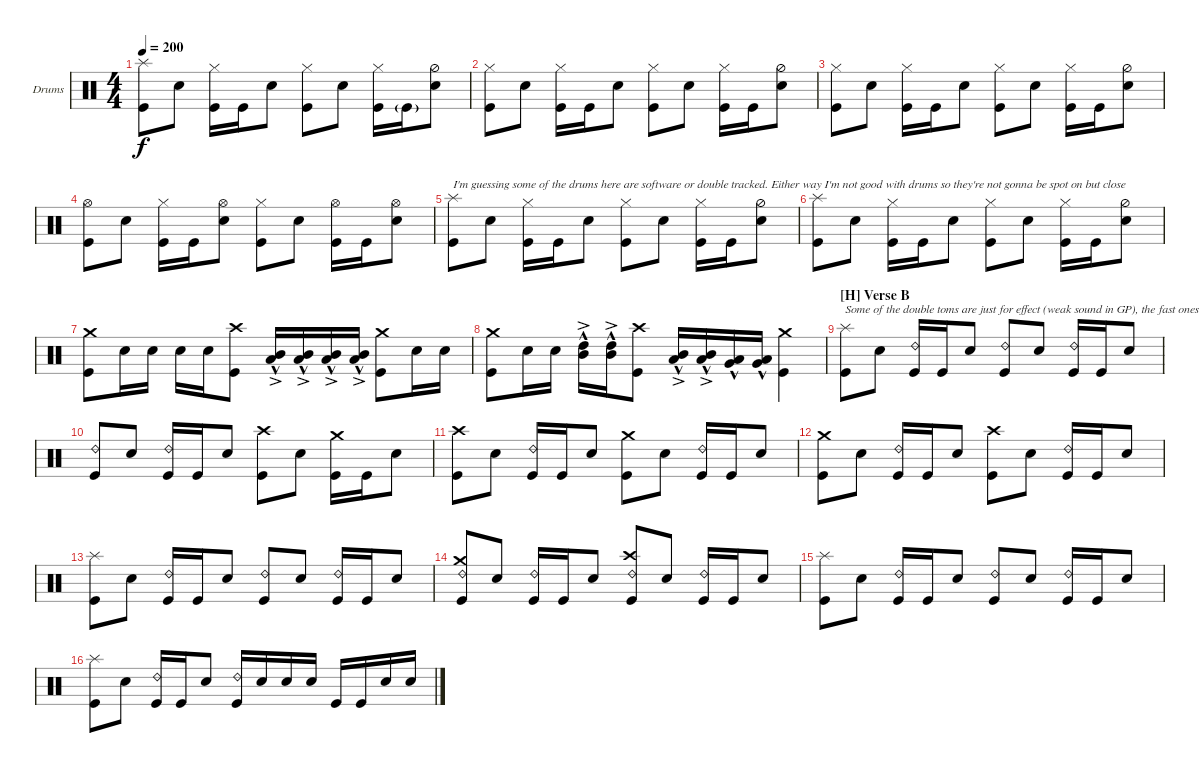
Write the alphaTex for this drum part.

\defaultSystemsLayout 4
\bracketExtendMode groupsimilarinstruments
\firstSystemTrackNameOrientation horizontal
\otherSystemsTrackNameOrientation horizontal
\track ("Drumkit" "Drums") {instrument percussion}
\staff {score}
\articulation defaults
\ts (4 4)
\tempo 200
\clef neutral
\ks c
("Kick (hit)" "Splash (hit)").8{dy f} "Snare (hit) 2".8 ("Kick (hit)" "Hi-Hat (closed)").16 "Kick (hit)".16 "Snare (hit) 2".8 ("Kick (hit)" "Hi-Hat (closed)").8 "Snare (hit) 2".8 ("Kick (hit)" "Hi-Hat (closed)").16 "Kick (hit)"{g}.16 ("Snare (hit) 2" "Hi-Hat (half)").8 |
("Kick (hit)" "Hi-Hat (closed)").8 "Snare (hit) 2".8 ("Kick (hit)" "Hi-Hat (closed)").16 "Kick (hit)".16 "Snare (hit) 2".8 ("Kick (hit)" "Hi-Hat (closed)").8 "Snare (hit) 2".8 ("Kick (hit)" "Hi-Hat (closed)").16 "Kick (hit)".16 ("Snare (hit) 2" "Hi-Hat (half)").8 |
("Kick (hit)" "Hi-Hat (closed)").8 "Snare (hit) 2".8 ("Kick (hit)" "Hi-Hat (closed)").16 "Kick (hit)".16 "Snare (hit) 2".8 ("Kick (hit)" "Hi-Hat (closed)").8 "Snare (hit) 2".8 ("Kick (hit)" "Hi-Hat (closed)").16 "Kick (hit)".16 ("Snare (hit) 2" "Hi-Hat (half)").8 |
("Kick (hit)" "Hi-Hat (open)").8 "Snare (hit) 2".8 ("Kick (hit)" "Hi-Hat (closed)").16 "Kick (hit)".16 ("Snare (hit) 2" "Hi-Hat (open)").8 ("Kick (hit)" "Hi-Hat (closed)").8 "Snare (hit) 2".8 ("Kick (hit)" "Hi-Hat (open)").16 "Kick (hit)".16 ("Snare (hit) 2" "Hi-Hat (open)").8 |
("Kick (hit)" "Splash (hit)").8{txt "I'm guessing some of the drums here are software or double tracked. Either way I'm not good with drums so they're not gonna be spot on but close"} "Snare (hit) 2".8 ("Kick (hit)" "Hi-Hat (closed)").16 "Kick (hit)".16 "Snare (hit) 2".8 ("Kick (hit)" "Hi-Hat (closed)").8 "Snare (hit) 2".8 ("Kick (hit)" "Hi-Hat (closed)").16 "Kick (hit)".16 ("Snare (hit) 2" "Hi-Hat (half)").8 |
("Kick (hit)" "Splash (hit)").8 "Snare (hit) 2".8 ("Kick (hit)" "Hi-Hat (closed)").16 "Kick (hit)".16 "Snare (hit) 2".8 ("Kick (hit)" "Hi-Hat (closed)").8 "Snare (hit) 2".8 ("Kick (hit)" "Hi-Hat (closed)").16 "Kick (hit)".16 ("Snare (hit) 2" "Hi-Hat (half)").8 |
("Kick (hit)" "Crash medium (hit)").8 "Snare (hit) 2".16 "Snare (hit) 2".16 "Snare (hit) 2".16 "Snare (hit) 2".16 ("Kick (hit)" "Crash high (hit)").8 ("Low Tom (hit)"{hac} "Mid Tom (hit)"{ac}).16 ("Low Tom (hit)"{hac} "Mid Tom (hit)"{ac}).16 ("Low Tom (hit)"{hac} "Mid Tom (hit)"{ac}).16 ("Low Tom (hit)"{hac} "Mid Tom (hit)"{ac}).16 ("Kick (hit)" "Crash medium (hit)").8 "Snare (hit) 2".16 "Snare (hit) 2".16 |
("Kick (hit)" "Crash medium (hit)").8 "Snare (hit) 2".16 "Snare (hit) 2".16 ("Mid Tom (hit)"{hac} "High Tom (hit)"{ac}).16 ("Mid Tom (hit)"{hac} "High Tom (hit)"{ac}).16 ("Kick (hit)" "Crash high (hit)").8 ("Low Tom (hit)"{hac} "Mid Tom (hit)"{ac}).16 ("Low Tom (hit)"{hac} "Mid Tom (hit)"{ac}).16 ("Low Tom (hit)"{hac} "Very Low Tom (hit)"{hac}).16 ("Low Tom (hit)"{hac} "Very Low Tom (hit)"{hac}).16 ("Kick (hit)" "Crash medium (hit)").4 |
\section ("H" "Verse B")
("Kick (hit)" "Splash (hit)").8{txt "Some of the double toms are just for effect (weak sound in GP), the fast ones are single"} "Snare (hit) 2".8 ("Kick (hit)" "Ride (bell) 2").16 "Kick (hit)".16 "Snare (hit) 2".8 ("Kick (hit)" "Ride (bell) 2").8 "Snare (hit) 2".8 ("Kick (hit)" "Ride (bell) 2").16 "Kick (hit)".16 "Snare (hit) 2".8 |
("Kick (hit)" "Ride (bell) 2").8 "Snare (hit) 2".8 ("Kick (hit)" "Ride (bell) 2").16 "Kick (hit)".16 "Snare (hit) 2".8 ("Kick (hit)" "Crash high (hit)").8 "Snare (hit) 2".8 ("Kick (hit)" "Crash medium (hit)").16 "Kick (hit)".16 "Snare (hit) 2".8 |
("Kick (hit)" "Crash high (hit)").8 "Snare (hit) 2".8 ("Kick (hit)" "Ride (bell) 2").16 "Kick (hit)".16 "Snare (hit) 2".8 ("Kick (hit)" "Crash medium (hit)").8 "Snare (hit) 2".8 ("Kick (hit)" "Ride (bell) 2").16 "Kick (hit)".16 "Snare (hit) 2".8 |
("Kick (hit)" "Crash medium (hit)").8 "Snare (hit) 2".8 ("Kick (hit)" "Ride (bell) 2").16 "Kick (hit)".16 "Snare (hit) 2".8 ("Kick (hit)" "Crash high (hit)").8 "Snare (hit) 2".8 ("Kick (hit)" "Ride (bell) 2").16 "Kick (hit)".16 "Snare (hit) 2".8 |
("Kick (hit)" "Splash (hit)").8 "Snare (hit) 2".8 ("Kick (hit)" "Ride (bell) 2").16 "Kick (hit)".16 "Snare (hit) 2".8 ("Kick (hit)" "Ride (bell) 2").8 "Snare (hit) 2".8 ("Kick (hit)" "Ride (bell) 2").16 "Kick (hit)".16 "Snare (hit) 2".8 |
("Kick (hit)" "Ride (bell) 2" "Crash medium (hit)").8 "Snare (hit) 2".8 ("Kick (hit)" "Ride (bell) 2").16 "Kick (hit)".16 "Snare (hit) 2".8 ("Kick (hit)" "Ride (bell) 2" "Crash high (hit)").8 "Snare (hit) 2".8 ("Kick (hit)" "Ride (bell) 2").16 "Kick (hit)".16 "Snare (hit) 2".8 |
("Kick (hit)" "Splash (hit)").8 "Snare (hit) 2".8 ("Kick (hit)" "Ride (bell) 2").16 "Kick (hit)".16 "Snare (hit) 2".8 ("Kick (hit)" "Ride (bell) 2").8 "Snare (hit) 2".8 ("Kick (hit)" "Ride (bell) 2").16 "Kick (hit)".16 "Snare (hit) 2".8 |
("Kick (hit)" "Splash (hit)").8 "Snare (hit) 2".8 ("Kick (hit)" "Ride (bell) 2").16 "Kick (hit)".16 "Snare (hit) 2".8 ("Kick (hit)" "Ride (bell) 2").16 "Snare (hit) 2".16 "Snare (hit) 2".16 "Snare (hit) 2".16 "Kick (hit)".16 "Kick (hit)".16 "Snare (hit) 2".16 "Snare (hit) 2".16
